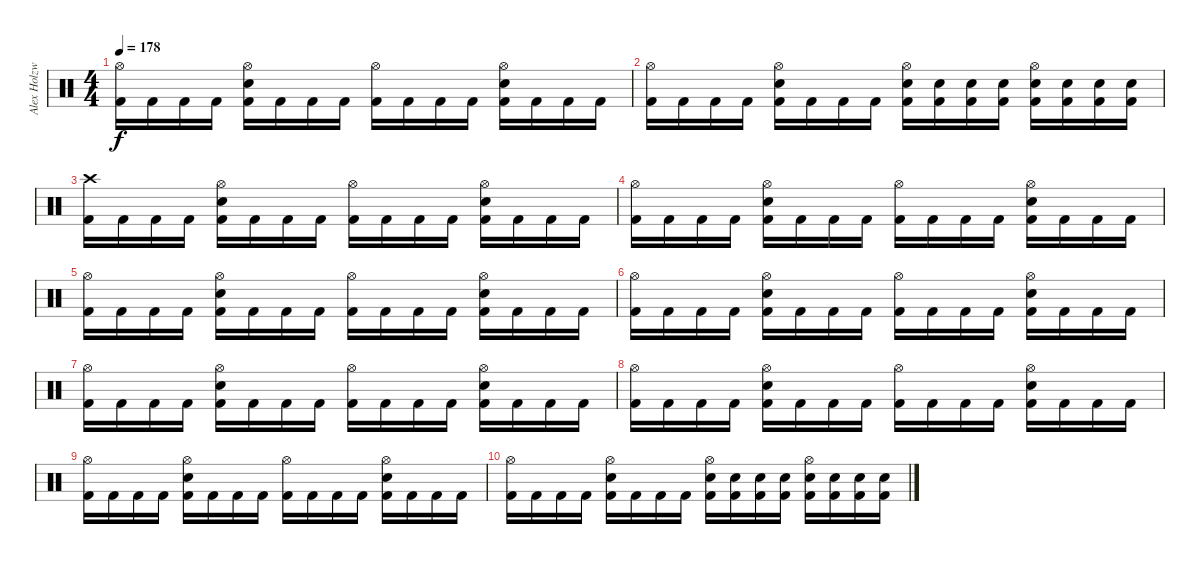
\track ("Alex Holzwarth" "Alex Holzw") {instrument percussion}
\staff {score}
\articulation defaults
\ts (4 4)
\tempo 178
\clef neutral
\ks c
("Hi-Hat (open)" "Kick (hit) 2").16{dy f} "Kick (hit) 2".16 "Kick (hit) 2".16 "Kick (hit) 2".16 ("Hi-Hat (open)" "Electric Snare (hit)" "Kick (hit) 2").16 "Kick (hit) 2".16 "Kick (hit) 2".16 "Kick (hit) 2".16 ("Hi-Hat (open)" "Kick (hit) 2").16 "Kick (hit) 2".16 "Kick (hit) 2".16 "Kick (hit) 2".16 ("Hi-Hat (open)" "Electric Snare (hit)" "Kick (hit) 2").16 "Kick (hit) 2".16 "Kick (hit) 2".16 "Kick (hit) 2".16 |
("Hi-Hat (open)" "Kick (hit) 2").16 "Kick (hit) 2".16 "Kick (hit) 2".16 "Kick (hit) 2".16 ("Hi-Hat (open)" "Electric Snare (hit)" "Kick (hit) 2").16 "Kick (hit) 2".16 "Kick (hit) 2".16 "Kick (hit) 2".16 ("Hi-Hat (open)" "Electric Snare (hit)" "Kick (hit) 2").16 ("Electric Snare (hit)" "Kick (hit) 2").16 ("Electric Snare (hit)" "Kick (hit) 2").16 ("Electric Snare (hit)" "Kick (hit) 2").16 ("Hi-Hat (open)" "Electric Snare (hit)" "Kick (hit) 2").16 ("Electric Snare (hit)" "Kick (hit) 2").16 ("Electric Snare (hit)" "Kick (hit) 2").16 ("Electric Snare (hit)" "Kick (hit) 2").16 |
("Crash high (hit)" "Kick (hit) 2").16 "Kick (hit) 2".16 "Kick (hit) 2".16 "Kick (hit) 2".16 ("Hi-Hat (open)" "Electric Snare (hit)" "Kick (hit) 2").16 "Kick (hit) 2".16 "Kick (hit) 2".16 "Kick (hit) 2".16 ("Hi-Hat (open)" "Kick (hit) 2").16 "Kick (hit) 2".16 "Kick (hit) 2".16 "Kick (hit) 2".16 ("Hi-Hat (open)" "Electric Snare (hit)" "Kick (hit) 2").16 "Kick (hit) 2".16 "Kick (hit) 2".16 "Kick (hit) 2".16 |
("Hi-Hat (open)" "Kick (hit) 2").16 "Kick (hit) 2".16 "Kick (hit) 2".16 "Kick (hit) 2".16 ("Hi-Hat (open)" "Electric Snare (hit)" "Kick (hit) 2").16 "Kick (hit) 2".16 "Kick (hit) 2".16 "Kick (hit) 2".16 ("Hi-Hat (open)" "Kick (hit) 2").16 "Kick (hit) 2".16 "Kick (hit) 2".16 "Kick (hit) 2".16 ("Hi-Hat (open)" "Electric Snare (hit)" "Kick (hit) 2").16 "Kick (hit) 2".16 "Kick (hit) 2".16 "Kick (hit) 2".16 |
("Hi-Hat (open)" "Kick (hit) 2").16 "Kick (hit) 2".16 "Kick (hit) 2".16 "Kick (hit) 2".16 ("Hi-Hat (open)" "Electric Snare (hit)" "Kick (hit) 2").16 "Kick (hit) 2".16 "Kick (hit) 2".16 "Kick (hit) 2".16 ("Hi-Hat (open)" "Kick (hit) 2").16 "Kick (hit) 2".16 "Kick (hit) 2".16 "Kick (hit) 2".16 ("Hi-Hat (open)" "Electric Snare (hit)" "Kick (hit) 2").16 "Kick (hit) 2".16 "Kick (hit) 2".16 "Kick (hit) 2".16 |
("Hi-Hat (open)" "Kick (hit) 2").16 "Kick (hit) 2".16 "Kick (hit) 2".16 "Kick (hit) 2".16 ("Hi-Hat (open)" "Electric Snare (hit)" "Kick (hit) 2").16 "Kick (hit) 2".16 "Kick (hit) 2".16 "Kick (hit) 2".16 ("Hi-Hat (open)" "Kick (hit) 2").16 "Kick (hit) 2".16 "Kick (hit) 2".16 "Kick (hit) 2".16 ("Hi-Hat (open)" "Electric Snare (hit)" "Kick (hit) 2").16 "Kick (hit) 2".16 "Kick (hit) 2".16 "Kick (hit) 2".16 |
("Hi-Hat (open)" "Kick (hit) 2").16 "Kick (hit) 2".16 "Kick (hit) 2".16 "Kick (hit) 2".16 ("Hi-Hat (open)" "Electric Snare (hit)" "Kick (hit) 2").16 "Kick (hit) 2".16 "Kick (hit) 2".16 "Kick (hit) 2".16 ("Hi-Hat (open)" "Kick (hit) 2").16 "Kick (hit) 2".16 "Kick (hit) 2".16 "Kick (hit) 2".16 ("Hi-Hat (open)" "Electric Snare (hit)" "Kick (hit) 2").16 "Kick (hit) 2".16 "Kick (hit) 2".16 "Kick (hit) 2".16 |
("Hi-Hat (open)" "Kick (hit) 2").16 "Kick (hit) 2".16 "Kick (hit) 2".16 "Kick (hit) 2".16 ("Hi-Hat (open)" "Electric Snare (hit)" "Kick (hit) 2").16 "Kick (hit) 2".16 "Kick (hit) 2".16 "Kick (hit) 2".16 ("Hi-Hat (open)" "Kick (hit) 2").16 "Kick (hit) 2".16 "Kick (hit) 2".16 "Kick (hit) 2".16 ("Hi-Hat (open)" "Electric Snare (hit)" "Kick (hit) 2").16 "Kick (hit) 2".16 "Kick (hit) 2".16 "Kick (hit) 2".16 |
("Hi-Hat (open)" "Kick (hit) 2").16 "Kick (hit) 2".16 "Kick (hit) 2".16 "Kick (hit) 2".16 ("Hi-Hat (open)" "Electric Snare (hit)" "Kick (hit) 2").16 "Kick (hit) 2".16 "Kick (hit) 2".16 "Kick (hit) 2".16 ("Hi-Hat (open)" "Kick (hit) 2").16 "Kick (hit) 2".16 "Kick (hit) 2".16 "Kick (hit) 2".16 ("Hi-Hat (open)" "Electric Snare (hit)" "Kick (hit) 2").16 "Kick (hit) 2".16 "Kick (hit) 2".16 "Kick (hit) 2".16 |
("Hi-Hat (open)" "Kick (hit) 2").16 "Kick (hit) 2".16 "Kick (hit) 2".16 "Kick (hit) 2".16 ("Hi-Hat (open)" "Electric Snare (hit)" "Kick (hit) 2").16 "Kick (hit) 2".16 "Kick (hit) 2".16 "Kick (hit) 2".16 ("Hi-Hat (open)" "Electric Snare (hit)" "Kick (hit) 2").16 ("Electric Snare (hit)" "Kick (hit) 2").16 ("Electric Snare (hit)" "Kick (hit) 2").16 ("Electric Snare (hit)" "Kick (hit) 2").16 ("Hi-Hat (open)" "Electric Snare (hit)" "Kick (hit) 2").16 ("Electric Snare (hit)" "Kick (hit) 2").16 ("Electric Snare (hit)" "Kick (hit) 2").16 ("Electric Snare (hit)" "Kick (hit) 2").16
